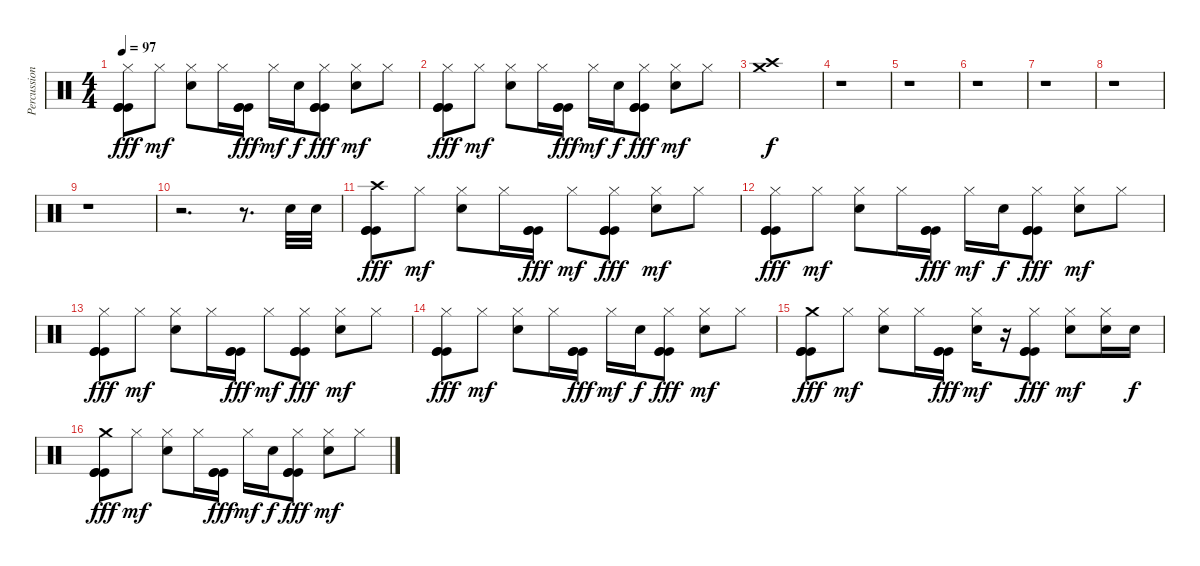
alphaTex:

\track ("Percussions" "Percussion") {instrument percussion}
\staff {score}
\articulation defaults
\ts (4 4)
\tempo 97
\clef neutral
\ks c
("Hi-Hat (closed)" "Kick (hit)" "Kick (hit)" "Kick (hit)").8{dy fff} "Hi-Hat (closed)".8{dy mf} ("Hi-Hat (closed)" "Electric Snare (hit)").8 "Hi-Hat (closed)".16 ("Kick (hit)" "Kick (hit)" "Kick (hit)").16{dy fff} "Hi-Hat (closed)".16{dy mf} "Electric Snare (hit)".16{dy f} ("Hi-Hat (closed)" "Kick (hit)" "Kick (hit)" "Kick (hit)").8{dy fff} ("Hi-Hat (closed)" "Electric Snare (hit)").8{dy mf} "Hi-Hat (closed)".8 |
("Hi-Hat (closed)" "Kick (hit)" "Kick (hit)" "Kick (hit)").8{dy fff} "Hi-Hat (closed)".8{dy mf} ("Hi-Hat (closed)" "Electric Snare (hit)").8 "Hi-Hat (closed)".16 ("Kick (hit)" "Kick (hit)" "Kick (hit)").16{dy fff} "Hi-Hat (closed)".16{dy mf} "Electric Snare (hit)".16{dy f} ("Hi-Hat (closed)" "Kick (hit)" "Kick (hit)" "Kick (hit)").8{dy fff} ("Hi-Hat (closed)" "Electric Snare (hit)").8{dy mf} "Hi-Hat (closed)".8 |
("Crash medium (hit)" "Crash high (hit)").1{dy f} |
r.1 |
r.1 |
r.1 |
r.1 |
r.1 |
r.1 |
r.2{d} r.8{d} "Electric Snare (hit)".32 "Electric Snare (hit)".32 |
("Crash high (hit)" "Kick (hit)" "Kick (hit)" "Kick (hit)").8{dy fff} "Hi-Hat (closed)".8{dy mf} ("Hi-Hat (closed)" "Electric Snare (hit)").8 "Hi-Hat (closed)".16 ("Kick (hit)" "Kick (hit)" "Kick (hit)").16{dy fff} "Hi-Hat (closed)".8{dy mf} ("Hi-Hat (closed)" "Kick (hit)" "Kick (hit)" "Kick (hit)").8{dy fff} ("Hi-Hat (closed)" "Electric Snare (hit)").8{dy mf} "Hi-Hat (closed)".8 |
("Hi-Hat (closed)" "Kick (hit)" "Kick (hit)" "Kick (hit)").8{dy fff} "Hi-Hat (closed)".8{dy mf} ("Hi-Hat (closed)" "Electric Snare (hit)").8 "Hi-Hat (closed)".16 ("Kick (hit)" "Kick (hit)" "Kick (hit)").16{dy fff} "Hi-Hat (closed)".16{dy mf} "Electric Snare (hit)".16{dy f} ("Hi-Hat (closed)" "Kick (hit)" "Kick (hit)" "Kick (hit)").8{dy fff} ("Hi-Hat (closed)" "Electric Snare (hit)").8{dy mf} "Hi-Hat (closed)".8 |
("Hi-Hat (closed)" "Kick (hit)" "Kick (hit)" "Kick (hit)").8{dy fff} "Hi-Hat (closed)".8{dy mf} ("Hi-Hat (closed)" "Electric Snare (hit)").8 "Hi-Hat (closed)".16 ("Kick (hit)" "Kick (hit)" "Kick (hit)").16{dy fff} "Hi-Hat (closed)".8{dy mf} ("Hi-Hat (closed)" "Kick (hit)" "Kick (hit)" "Kick (hit)").8{dy fff} ("Hi-Hat (closed)" "Electric Snare (hit)").8{dy mf} "Hi-Hat (closed)".8 |
("Hi-Hat (closed)" "Kick (hit)" "Kick (hit)" "Kick (hit)").8{dy fff} "Hi-Hat (closed)".8{dy mf} ("Hi-Hat (closed)" "Electric Snare (hit)").8 "Hi-Hat (closed)".16 ("Kick (hit)" "Kick (hit)" "Kick (hit)").16{dy fff} "Hi-Hat (closed)".16{dy mf} "Electric Snare (hit)".16{dy f} ("Hi-Hat (closed)" "Kick (hit)" "Kick (hit)" "Kick (hit)").8{dy fff} ("Hi-Hat (closed)" "Electric Snare (hit)").8{dy mf} "Hi-Hat (closed)".8 |
("Crash medium (hit)" "Kick (hit)" "Kick (hit)" "Kick (hit)").8{dy fff} "Hi-Hat (closed)".8{dy mf} ("Hi-Hat (closed)" "Electric Snare (hit)").8 "Hi-Hat (closed)".16 ("Kick (hit)" "Kick (hit)" "Kick (hit)").16{dy fff} ("Hi-Hat (closed)" "Electric Snare (hit)").16{dy mf} r.16 ("Hi-Hat (closed)" "Kick (hit)" "Kick (hit)" "Kick (hit)").8{dy fff} ("Hi-Hat (closed)" "Electric Snare (hit)").8{dy mf} ("Hi-Hat (closed)" "Electric Snare (hit)").16 "Electric Snare (hit)".16{dy f} |
("Crash medium (hit)" "Kick (hit)" "Kick (hit)" "Kick (hit)").8{dy fff} "Hi-Hat (closed)".8{dy mf} ("Hi-Hat (closed)" "Electric Snare (hit)").8 "Hi-Hat (closed)".16 ("Kick (hit)" "Kick (hit)" "Kick (hit)").16{dy fff} "Hi-Hat (closed)".16{dy mf} "Electric Snare (hit)".16{dy f} ("Hi-Hat (closed)" "Kick (hit)" "Kick (hit)" "Kick (hit)").8{dy fff} ("Hi-Hat (closed)" "Electric Snare (hit)").8{dy mf} "Hi-Hat (closed)".8
